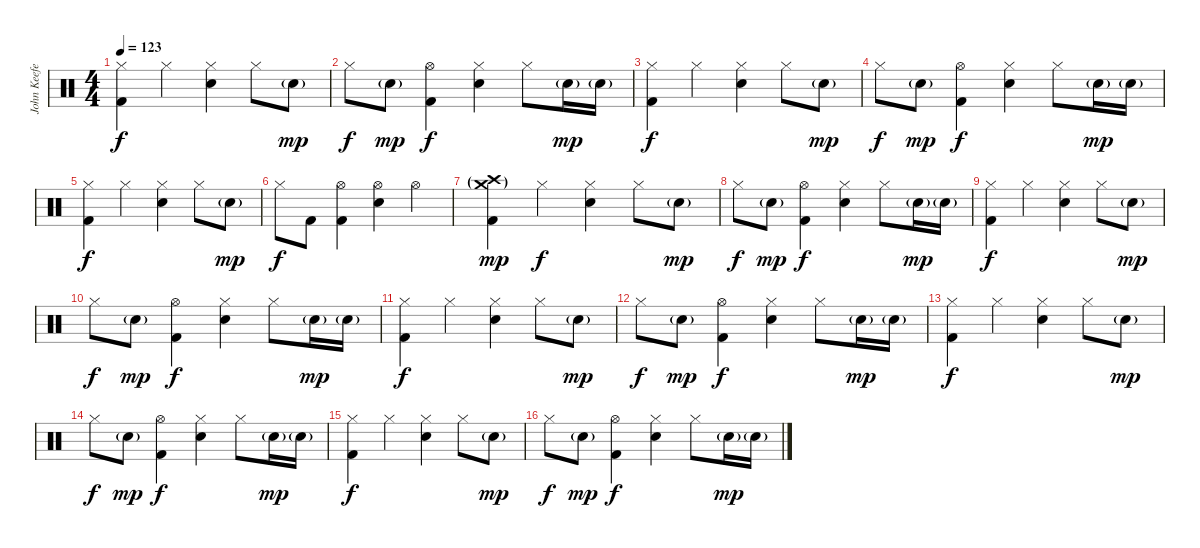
\track ("John Keefe - Drums" "John Keefe") {instrument percussion}
\staff {score}
\articulation defaults
\ts (4 4)
\tempo 123
\clef neutral
\ks c
("Hi-Hat (closed)" "Kick (hit) 2").4{dy f} "Hi-Hat (closed)".4 ("Hi-Hat (closed)" "Snare (hit) 2").4 "Hi-Hat (closed)".8 "Snare (hit) 2"{g}.8{dy mp} |
"Hi-Hat (closed)".8{dy f} "Snare (hit) 2"{g}.8{dy mp} ("Hi-Hat (open)" "Kick (hit) 2").4{dy f} ("Hi-Hat (closed)" "Snare (hit) 2").4 "Hi-Hat (closed)".8 "Snare (hit) 2"{g}.16{dy mp} "Snare (hit) 2"{g}.16 |
("Hi-Hat (closed)" "Kick (hit) 2").4{dy f} "Hi-Hat (closed)".4 ("Hi-Hat (closed)" "Snare (hit) 2").4 "Hi-Hat (closed)".8 "Snare (hit) 2"{g}.8{dy mp} |
"Hi-Hat (closed)".8{dy f} "Snare (hit) 2"{g}.8{dy mp} ("Hi-Hat (open)" "Kick (hit) 2").4{dy f} ("Hi-Hat (closed)" "Snare (hit) 2").4 "Hi-Hat (closed)".8 "Snare (hit) 2"{g}.16{dy mp} "Snare (hit) 2"{g}.16 |
("Hi-Hat (closed)" "Kick (hit) 2").4{dy f} "Hi-Hat (closed)".4 ("Hi-Hat (closed)" "Snare (hit) 2").4 "Hi-Hat (closed)".8 "Snare (hit) 2"{g}.8{dy mp} |
"Hi-Hat (closed)".8{dy f} "Kick (hit) 2".8 ("Hi-Hat (open)" "Kick (hit) 2").4 ("Hi-Hat (open)" "Snare (hit) 2").4 "Hi-Hat (open)".4 |
("Crash high (hit)"{g} "Crash medium (hit)"{g} "Kick (hit) 2").4{dy mp} "Hi-Hat (closed)".4{dy f} ("Hi-Hat (closed)" "Snare (hit) 2").4 "Hi-Hat (closed)".8 "Snare (hit) 2"{g}.8{dy mp} |
"Hi-Hat (closed)".8{dy f} "Snare (hit) 2"{g}.8{dy mp} ("Hi-Hat (open)" "Kick (hit) 2").4{dy f} ("Hi-Hat (closed)" "Snare (hit) 2").4 "Hi-Hat (closed)".8 "Snare (hit) 2"{g}.16{dy mp} "Snare (hit) 2"{g}.16 |
("Hi-Hat (closed)" "Kick (hit) 2").4{dy f} "Hi-Hat (closed)".4 ("Hi-Hat (closed)" "Snare (hit) 2").4 "Hi-Hat (closed)".8 "Snare (hit) 2"{g}.8{dy mp} |
"Hi-Hat (closed)".8{dy f} "Snare (hit) 2"{g}.8{dy mp} ("Hi-Hat (open)" "Kick (hit) 2").4{dy f} ("Hi-Hat (closed)" "Snare (hit) 2").4 "Hi-Hat (closed)".8 "Snare (hit) 2"{g}.16{dy mp} "Snare (hit) 2"{g}.16 |
("Hi-Hat (closed)" "Kick (hit) 2").4{dy f} "Hi-Hat (closed)".4 ("Hi-Hat (closed)" "Snare (hit) 2").4 "Hi-Hat (closed)".8 "Snare (hit) 2"{g}.8{dy mp} |
"Hi-Hat (closed)".8{dy f} "Snare (hit) 2"{g}.8{dy mp} ("Hi-Hat (open)" "Kick (hit) 2").4{dy f} ("Hi-Hat (closed)" "Snare (hit) 2").4 "Hi-Hat (closed)".8 "Snare (hit) 2"{g}.16{dy mp} "Snare (hit) 2"{g}.16 |
("Hi-Hat (closed)" "Kick (hit) 2").4{dy f} "Hi-Hat (closed)".4 ("Hi-Hat (closed)" "Snare (hit) 2").4 "Hi-Hat (closed)".8 "Snare (hit) 2"{g}.8{dy mp} |
"Hi-Hat (closed)".8{dy f} "Snare (hit) 2"{g}.8{dy mp} ("Hi-Hat (open)" "Kick (hit) 2").4{dy f} ("Hi-Hat (closed)" "Snare (hit) 2").4 "Hi-Hat (closed)".8 "Snare (hit) 2"{g}.16{dy mp} "Snare (hit) 2"{g}.16 |
("Hi-Hat (closed)" "Kick (hit) 2").4{dy f} "Hi-Hat (closed)".4 ("Hi-Hat (closed)" "Snare (hit) 2").4 "Hi-Hat (closed)".8 "Snare (hit) 2"{g}.8{dy mp} |
"Hi-Hat (closed)".8{dy f} "Snare (hit) 2"{g}.8{dy mp} ("Hi-Hat (open)" "Kick (hit) 2").4{dy f} ("Hi-Hat (closed)" "Snare (hit) 2").4 "Hi-Hat (closed)".8 "Snare (hit) 2"{g}.16{dy mp} "Snare (hit) 2"{g}.16
